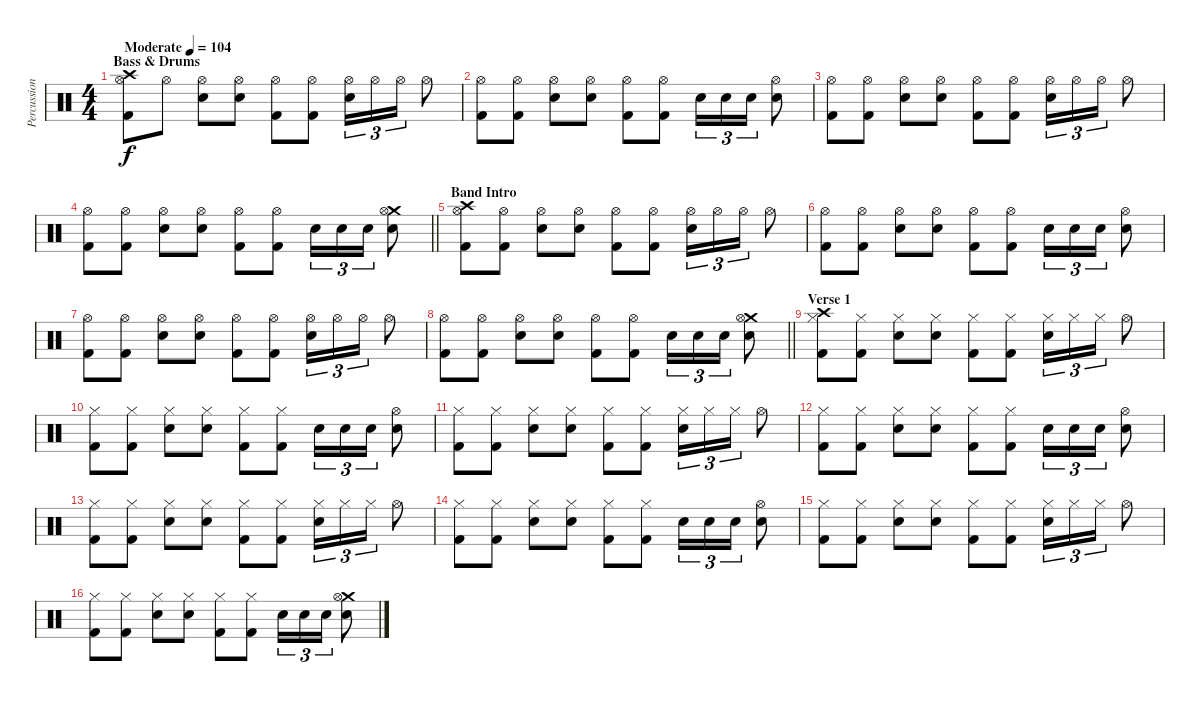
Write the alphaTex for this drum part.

\track ("Percussion" "Percussion") {instrument percussion}
\staff {score}
\articulation defaults
\ts (4 4)
\section ("" "Bass & Drums")
\tempo (104 "Moderate")
\clef neutral
\ks c
("Crash high (hit)" "Hi-Hat (open)" "Kick (hit) 2").8{dy f} "Hi-Hat (open)".8 ("Hi-Hat (open)" "Snare (hit) 2").8 ("Hi-Hat (open)" "Snare (hit) 2").8 ("Hi-Hat (open)" "Kick (hit) 2").8 ("Hi-Hat (open)" "Kick (hit) 2").8 ("Hi-Hat (open)" "Snare (hit) 2").16{tu (3 2)} "Hi-Hat (open)".16{tu (3 2)} "Hi-Hat (open)".16{tu (3 2)} "Hi-Hat (open)".8 |
("Hi-Hat (open)" "Kick (hit) 2").8 ("Hi-Hat (open)" "Kick (hit) 2").8 ("Hi-Hat (open)" "Snare (hit) 2").8 ("Hi-Hat (open)" "Snare (hit) 2").8 ("Hi-Hat (open)" "Kick (hit) 2").8 ("Hi-Hat (open)" "Kick (hit) 2").8 "Snare (hit) 2".16{tu (3 2)} "Snare (hit) 2".16{tu (3 2)} "Snare (hit) 2".16{tu (3 2)} ("Hi-Hat (open)" "Snare (hit) 2").8 |
("Hi-Hat (open)" "Kick (hit) 2").8 ("Hi-Hat (open)" "Kick (hit) 2").8 ("Hi-Hat (open)" "Snare (hit) 2").8 ("Hi-Hat (open)" "Snare (hit) 2").8 ("Hi-Hat (open)" "Kick (hit) 2").8 ("Hi-Hat (open)" "Kick (hit) 2").8 ("Hi-Hat (open)" "Snare (hit) 2").16{tu (3 2)} "Hi-Hat (open)".16{tu (3 2)} "Hi-Hat (open)".16{tu (3 2)} "Hi-Hat (open)".8 |
\barLineRight lightlight
("Hi-Hat (open)" "Kick (hit) 2").8 ("Hi-Hat (open)" "Kick (hit) 2").8 ("Hi-Hat (open)" "Snare (hit) 2").8 ("Hi-Hat (open)" "Snare (hit) 2").8 ("Hi-Hat (open)" "Kick (hit) 2").8 ("Hi-Hat (open)" "Kick (hit) 2").8 "Snare (hit) 2".16{tu (3 2)} "Snare (hit) 2".16{tu (3 2)} "Snare (hit) 2".16{tu (3 2)} ("Crash medium (hit)" "Hi-Hat (open)" "Snare (hit) 2").8 |
\section ("" "Band Intro")
("Crash high (hit)" "Hi-Hat (open)" "Kick (hit) 2").8 ("Hi-Hat (open)" "Kick (hit) 2").8 ("Hi-Hat (open)" "Snare (hit) 2").8 ("Hi-Hat (open)" "Snare (hit) 2").8 ("Hi-Hat (open)" "Kick (hit) 2").8 ("Hi-Hat (open)" "Kick (hit) 2").8 ("Hi-Hat (open)" "Snare (hit) 2").16{tu (3 2)} "Hi-Hat (open)".16{tu (3 2)} "Hi-Hat (open)".16{tu (3 2)} "Hi-Hat (open)".8 |
("Hi-Hat (open)" "Kick (hit) 2").8 ("Hi-Hat (open)" "Kick (hit) 2").8 ("Hi-Hat (open)" "Snare (hit) 2").8 ("Hi-Hat (open)" "Snare (hit) 2").8 ("Hi-Hat (open)" "Kick (hit) 2").8 ("Hi-Hat (open)" "Kick (hit) 2").8 "Snare (hit) 2".16{tu (3 2)} "Snare (hit) 2".16{tu (3 2)} "Snare (hit) 2".16{tu (3 2)} ("Hi-Hat (open)" "Snare (hit) 2").8 |
("Hi-Hat (open)" "Kick (hit) 2").8 ("Hi-Hat (open)" "Kick (hit) 2").8 ("Hi-Hat (open)" "Snare (hit) 2").8 ("Hi-Hat (open)" "Snare (hit) 2").8 ("Hi-Hat (open)" "Kick (hit) 2").8 ("Hi-Hat (open)" "Kick (hit) 2").8 ("Hi-Hat (open)" "Snare (hit) 2").16{tu (3 2)} "Hi-Hat (open)".16{tu (3 2)} "Hi-Hat (open)".16{tu (3 2)} "Hi-Hat (open)".8 |
\barLineRight lightlight
("Hi-Hat (open)" "Kick (hit) 2").8 ("Hi-Hat (open)" "Kick (hit) 2").8 ("Hi-Hat (open)" "Snare (hit) 2").8 ("Hi-Hat (open)" "Snare (hit) 2").8 ("Hi-Hat (open)" "Kick (hit) 2").8 ("Hi-Hat (open)" "Kick (hit) 2").8 "Snare (hit) 2".16{tu (3 2)} "Snare (hit) 2".16{tu (3 2)} "Snare (hit) 2".16{tu (3 2)} ("Crash medium (hit)" "Hi-Hat (open)" "Snare (hit) 2").8 |
\section ("" "Verse 1")
("Crash high (hit)" "Hi-Hat (closed)" "Kick (hit) 2").8 ("Hi-Hat (closed)" "Kick (hit) 2").8 ("Hi-Hat (closed)" "Snare (hit) 2").8 ("Hi-Hat (closed)" "Snare (hit) 2").8 ("Hi-Hat (closed)" "Kick (hit) 2").8 ("Hi-Hat (closed)" "Kick (hit) 2").8 ("Hi-Hat (closed)" "Snare (hit) 2").16{tu (3 2)} "Hi-Hat (closed)".16{tu (3 2)} "Hi-Hat (closed)".16{tu (3 2)} "Hi-Hat (open)".8 |
("Hi-Hat (closed)" "Kick (hit) 2").8 ("Hi-Hat (closed)" "Kick (hit) 2").8 ("Hi-Hat (closed)" "Snare (hit) 2").8 ("Hi-Hat (closed)" "Snare (hit) 2").8 ("Hi-Hat (closed)" "Kick (hit) 2").8 ("Hi-Hat (closed)" "Kick (hit) 2").8 "Snare (hit) 2".16{tu (3 2)} "Snare (hit) 2".16{tu (3 2)} "Snare (hit) 2".16{tu (3 2)} ("Hi-Hat (open)" "Snare (hit) 2").8 |
("Hi-Hat (closed)" "Kick (hit) 2").8 ("Hi-Hat (closed)" "Kick (hit) 2").8 ("Hi-Hat (closed)" "Snare (hit) 2").8 ("Hi-Hat (closed)" "Snare (hit) 2").8 ("Hi-Hat (closed)" "Kick (hit) 2").8 ("Hi-Hat (closed)" "Kick (hit) 2").8 ("Hi-Hat (closed)" "Snare (hit) 2").16{tu (3 2)} "Hi-Hat (closed)".16{tu (3 2)} "Hi-Hat (closed)".16{tu (3 2)} "Hi-Hat (open)".8 |
("Hi-Hat (closed)" "Kick (hit) 2").8 ("Hi-Hat (closed)" "Kick (hit) 2").8 ("Hi-Hat (closed)" "Snare (hit) 2").8 ("Hi-Hat (closed)" "Snare (hit) 2").8 ("Hi-Hat (closed)" "Kick (hit) 2").8 ("Hi-Hat (closed)" "Kick (hit) 2").8 "Snare (hit) 2".16{tu (3 2)} "Snare (hit) 2".16{tu (3 2)} "Snare (hit) 2".16{tu (3 2)} ("Hi-Hat (open)" "Snare (hit) 2").8 |
("Hi-Hat (closed)" "Kick (hit) 2").8 ("Hi-Hat (closed)" "Kick (hit) 2").8 ("Hi-Hat (closed)" "Snare (hit) 2").8 ("Hi-Hat (closed)" "Snare (hit) 2").8 ("Hi-Hat (closed)" "Kick (hit) 2").8 ("Hi-Hat (closed)" "Kick (hit) 2").8 ("Hi-Hat (closed)" "Snare (hit) 2").16{tu (3 2)} "Hi-Hat (closed)".16{tu (3 2)} "Hi-Hat (closed)".16{tu (3 2)} "Hi-Hat (open)".8 |
("Hi-Hat (closed)" "Kick (hit) 2").8 ("Hi-Hat (closed)" "Kick (hit) 2").8 ("Hi-Hat (closed)" "Snare (hit) 2").8 ("Hi-Hat (closed)" "Snare (hit) 2").8 ("Hi-Hat (closed)" "Kick (hit) 2").8 ("Hi-Hat (closed)" "Kick (hit) 2").8 "Snare (hit) 2".16{tu (3 2)} "Snare (hit) 2".16{tu (3 2)} "Snare (hit) 2".16{tu (3 2)} ("Hi-Hat (open)" "Snare (hit) 2").8 |
("Hi-Hat (closed)" "Kick (hit) 2").8 ("Hi-Hat (closed)" "Kick (hit) 2").8 ("Hi-Hat (closed)" "Snare (hit) 2").8 ("Hi-Hat (closed)" "Snare (hit) 2").8 ("Hi-Hat (closed)" "Kick (hit) 2").8 ("Hi-Hat (closed)" "Kick (hit) 2").8 ("Hi-Hat (closed)" "Snare (hit) 2").16{tu (3 2)} "Hi-Hat (closed)".16{tu (3 2)} "Hi-Hat (closed)".16{tu (3 2)} "Hi-Hat (open)".8 |
("Hi-Hat (closed)" "Kick (hit) 2").8 ("Hi-Hat (closed)" "Kick (hit) 2").8 ("Hi-Hat (closed)" "Snare (hit) 2").8 ("Hi-Hat (closed)" "Snare (hit) 2").8 ("Hi-Hat (closed)" "Kick (hit) 2").8 ("Hi-Hat (closed)" "Kick (hit) 2").8 "Snare (hit) 2".16{tu (3 2)} "Snare (hit) 2".16{tu (3 2)} "Snare (hit) 2".16{tu (3 2)} ("Crash medium (hit)" "Hi-Hat (open)" "Snare (hit) 2").8
